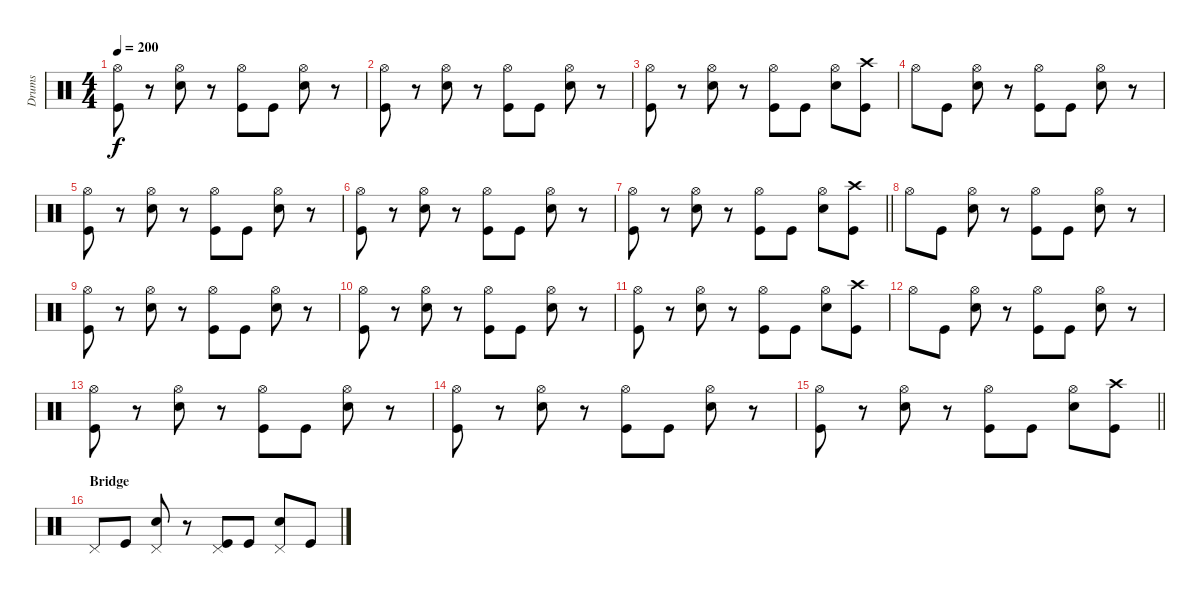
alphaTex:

\track ("Drums" "Drums") {instrument percussion}
\staff {score}
\articulation defaults
\ts (4 4)
\tempo 200
\clef neutral
\ks c
("Hi-Hat (open)" "Kick (hit)").8{dy f} r.8 ("Hi-Hat (open)" "Electric Snare (hit)").8 r.8 ("Hi-Hat (open)" "Kick (hit)").8 "Kick (hit)".8 ("Hi-Hat (open)" "Electric Snare (hit)").8 r.8 |
("Hi-Hat (open)" "Kick (hit)").8 r.8 ("Hi-Hat (open)" "Electric Snare (hit)").8 r.8 ("Hi-Hat (open)" "Kick (hit)").8 "Kick (hit)".8 ("Hi-Hat (open)" "Electric Snare (hit)").8 r.8 |
("Hi-Hat (open)" "Kick (hit)").8 r.8 ("Hi-Hat (open)" "Electric Snare (hit)").8 r.8 ("Hi-Hat (open)" "Kick (hit)").8 "Kick (hit)".8 ("Hi-Hat (open)" "Electric Snare (hit)").8 ("Crash high (hit)" "Kick (hit)").8 |
"Hi-Hat (open)".8 "Kick (hit)".8 ("Hi-Hat (open)" "Electric Snare (hit)").8 r.8 ("Hi-Hat (open)" "Kick (hit)").8 "Kick (hit)".8 ("Hi-Hat (open)" "Electric Snare (hit)").8 r.8 |
("Hi-Hat (open)" "Kick (hit)").8 r.8 ("Hi-Hat (open)" "Electric Snare (hit)").8 r.8 ("Hi-Hat (open)" "Kick (hit)").8 "Kick (hit)".8 ("Hi-Hat (open)" "Electric Snare (hit)").8 r.8 |
("Hi-Hat (open)" "Kick (hit)").8 r.8 ("Hi-Hat (open)" "Electric Snare (hit)").8 r.8 ("Hi-Hat (open)" "Kick (hit)").8 "Kick (hit)".8 ("Hi-Hat (open)" "Electric Snare (hit)").8 r.8 |
\barLineRight lightlight
("Hi-Hat (open)" "Kick (hit)").8 r.8 ("Hi-Hat (open)" "Electric Snare (hit)").8 r.8 ("Hi-Hat (open)" "Kick (hit)").8 "Kick (hit)".8 ("Hi-Hat (open)" "Electric Snare (hit)").8 ("Crash high (hit)" "Kick (hit)").8 |
"Hi-Hat (open)".8 "Kick (hit)".8 ("Hi-Hat (open)" "Electric Snare (hit)").8 r.8 ("Hi-Hat (open)" "Kick (hit)").8 "Kick (hit)".8 ("Hi-Hat (open)" "Electric Snare (hit)").8 r.8 |
("Hi-Hat (open)" "Kick (hit)").8 r.8 ("Hi-Hat (open)" "Electric Snare (hit)").8 r.8 ("Hi-Hat (open)" "Kick (hit)").8 "Kick (hit)".8 ("Hi-Hat (open)" "Electric Snare (hit)").8 r.8 |
("Hi-Hat (open)" "Kick (hit)").8 r.8 ("Hi-Hat (open)" "Electric Snare (hit)").8 r.8 ("Hi-Hat (open)" "Kick (hit)").8 "Kick (hit)".8 ("Hi-Hat (open)" "Electric Snare (hit)").8 r.8 |
("Hi-Hat (open)" "Kick (hit)").8 r.8 ("Hi-Hat (open)" "Electric Snare (hit)").8 r.8 ("Hi-Hat (open)" "Kick (hit)").8 "Kick (hit)".8 ("Hi-Hat (open)" "Electric Snare (hit)").8 ("Crash high (hit)" "Kick (hit)").8 |
"Hi-Hat (open)".8 "Kick (hit)".8 ("Hi-Hat (open)" "Electric Snare (hit)").8 r.8 ("Hi-Hat (open)" "Kick (hit)").8 "Kick (hit)".8 ("Hi-Hat (open)" "Electric Snare (hit)").8 r.8 |
("Hi-Hat (open)" "Kick (hit)").8 r.8 ("Hi-Hat (open)" "Electric Snare (hit)").8 r.8 ("Hi-Hat (open)" "Kick (hit)").8 "Kick (hit)".8 ("Hi-Hat (open)" "Electric Snare (hit)").8 r.8 |
("Hi-Hat (open)" "Kick (hit)").8 r.8 ("Hi-Hat (open)" "Electric Snare (hit)").8 r.8 ("Hi-Hat (open)" "Kick (hit)").8 "Kick (hit)".8 ("Hi-Hat (open)" "Electric Snare (hit)").8 r.8 |
\barLineRight lightlight
("Hi-Hat (open)" "Kick (hit)").8 r.8 ("Hi-Hat (open)" "Electric Snare (hit)").8 r.8 ("Hi-Hat (open)" "Kick (hit)").8 "Kick (hit)".8 ("Hi-Hat (open)" "Electric Snare (hit)").8 ("Crash high (hit)" "Kick (hit)").8 |
\section ("" "Bridge")
"Pedal Hi-Hat (hit)".8 "Kick (hit)".8 ("Pedal Hi-Hat (hit)" "Electric Snare (hit)").8 r.8 ("Pedal Hi-Hat (hit)" "Kick (hit)").8 "Kick (hit)".8 ("Pedal Hi-Hat (hit)" "Electric Snare (hit)").8 "Kick (hit)".8
